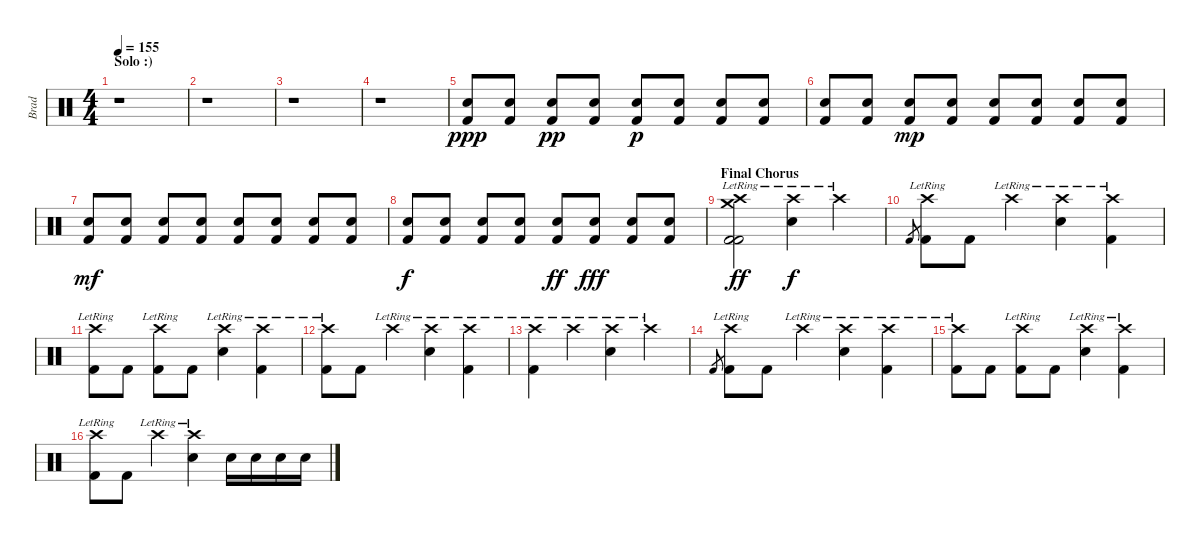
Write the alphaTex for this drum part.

\track ("Brad" "Brad") {instrument percussion}
\staff {score}
\articulation defaults
\ts (4 4)
\section ("" "Solo :)")
\tempo 155
\clef neutral
\ks c
r.1{dy f} |
r.1 |
r.1 |
r.1 |
("Snare (hit) 2" "Kick (hit) 2").8{dy ppp} ("Snare (hit) 2" "Kick (hit) 2").8 ("Snare (hit) 2" "Kick (hit) 2").8{dy pp} ("Snare (hit) 2" "Kick (hit) 2").8 ("Snare (hit) 2" "Kick (hit) 2").8{dy p} ("Snare (hit) 2" "Kick (hit) 2").8 ("Snare (hit) 2" "Kick (hit) 2").8 ("Snare (hit) 2" "Kick (hit) 2").8 |
("Snare (hit) 2" "Kick (hit) 2").8 ("Snare (hit) 2" "Kick (hit) 2").8 ("Snare (hit) 2" "Kick (hit) 2").8{dy mp} ("Snare (hit) 2" "Kick (hit) 2").8 ("Snare (hit) 2" "Kick (hit) 2").8 ("Snare (hit) 2" "Kick (hit) 2").8 ("Snare (hit) 2" "Kick (hit) 2").8 ("Snare (hit) 2" "Kick (hit) 2").8 |
("Snare (hit) 2" "Kick (hit) 2").8{dy mf} ("Snare (hit) 2" "Kick (hit) 2").8 ("Snare (hit) 2" "Kick (hit) 2").8 ("Snare (hit) 2" "Kick (hit) 2").8 ("Snare (hit) 2" "Kick (hit) 2").8 ("Snare (hit) 2" "Kick (hit) 2").8 ("Snare (hit) 2" "Kick (hit) 2").8 ("Snare (hit) 2" "Kick (hit) 2").8 |
("Snare (hit) 2" "Kick (hit) 2").8{dy f} ("Snare (hit) 2" "Kick (hit) 2").8 ("Snare (hit) 2" "Kick (hit) 2").8 ("Snare (hit) 2" "Kick (hit) 2").8 ("Snare (hit) 2" "Kick (hit) 2").8{dy ff} ("Snare (hit) 2" "Kick (hit) 2").8{dy fff} ("Snare (hit) 2" "Kick (hit) 2").8 ("Snare (hit) 2" "Kick (hit) 2").8 |
\section ("" "Final Chorus")
("Crash high (hit)"{lr} "Crash medium (hit)"{lr} "Kick (hit) 2" "Kick (hit) 2").2{dy ff} ("Crash high (hit)"{lr} "Electric Snare (hit)").4{dy f} "Crash high (hit)"{lr}.4 |
"Kick (hit) 2".8{gr} ("Crash high (hit)"{lr} "Kick (hit) 2").8 "Kick (hit) 2".8 "Crash high (hit)"{lr}.4 ("Crash high (hit)"{lr} "Electric Snare (hit)").4 ("Crash high (hit)"{lr} "Kick (hit) 2").4 |
("Crash high (hit)"{lr} "Kick (hit) 2").8 "Kick (hit) 2".8 ("Crash high (hit)"{lr} "Kick (hit) 2").8 "Kick (hit) 2".8 ("Crash high (hit)"{lr} "Electric Snare (hit)").4 ("Crash high (hit)"{lr} "Kick (hit) 2").4 |
("Crash high (hit)"{lr} "Kick (hit) 2").8 "Kick (hit) 2".8 "Crash high (hit)"{lr}.4 ("Crash high (hit)"{lr} "Electric Snare (hit)").4 ("Crash high (hit)"{lr} "Kick (hit) 2").4 |
("Crash high (hit)"{lr} "Kick (hit) 2").4 "Crash high (hit)"{lr}.4 ("Crash high (hit)"{lr} "Electric Snare (hit)").4 "Crash high (hit)"{lr}.4 |
"Kick (hit) 2".8{gr} ("Crash high (hit)"{lr} "Kick (hit) 2").8 "Kick (hit) 2".8 "Crash high (hit)"{lr}.4 ("Crash high (hit)"{lr} "Electric Snare (hit)").4 ("Crash high (hit)"{lr} "Kick (hit) 2").4 |
("Crash high (hit)"{lr} "Kick (hit) 2").8 "Kick (hit) 2".8 ("Crash high (hit)"{lr} "Kick (hit) 2").8 "Kick (hit) 2".8 ("Crash high (hit)"{lr} "Electric Snare (hit)").4 ("Crash high (hit)"{lr} "Kick (hit) 2").4 |
("Crash high (hit)"{lr} "Kick (hit) 2").8 "Kick (hit) 2".8 "Crash high (hit)"{lr}.4 ("Crash high (hit)"{lr} "Snare (hit) 2").4 "Snare (hit) 2".16 "Snare (hit) 2".16 "Snare (hit) 2".16 "Snare (hit) 2".16
